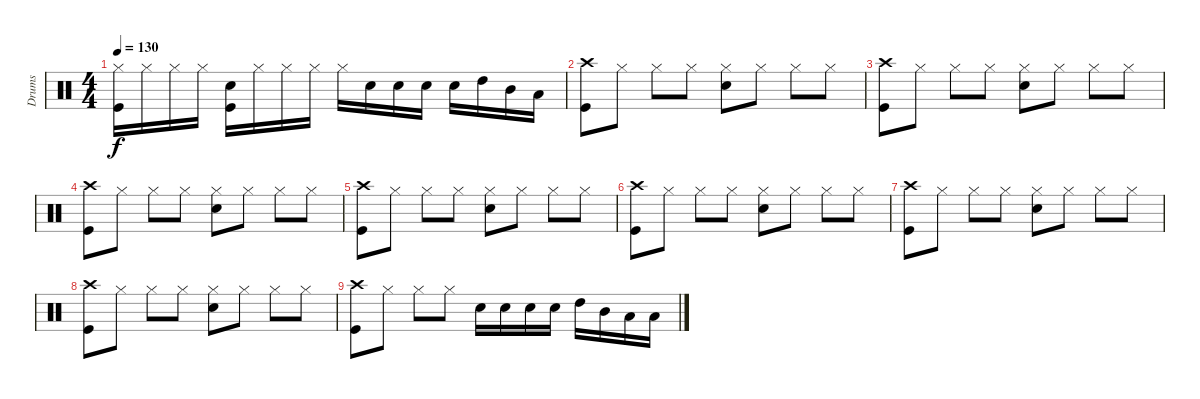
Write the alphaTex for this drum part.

\track ("Drums" "Drums") {instrument percussion}
\staff {score}
\articulation defaults
\ts (4 4)
\tempo 130
\clef neutral
\ks c
("Hi-Hat (closed)" "Kick (hit)").16{dy f} "Hi-Hat (closed)".16 "Hi-Hat (closed)".16 "Hi-Hat (closed)".16 ("Snare (hit) 2" "Kick (hit)").16 "Hi-Hat (closed)".16 "Hi-Hat (closed)".16 "Hi-Hat (closed)".16 "Hi-Hat (closed)".16 "Snare (hit) 2".16 "Snare (hit) 2".16 "Snare (hit) 2".16 "Snare (hit) 2".16 "High Tom (hit)".16 "Mid Tom (hit)".16 "Low Tom (hit)".16 |
("Crash high (hit)" "Kick (hit)").8 "Hi-Hat (closed)".8 "Hi-Hat (closed)".8 "Hi-Hat (closed)".8 ("Hi-Hat (closed)" "Snare (hit) 2").8 "Hi-Hat (closed)".8 "Hi-Hat (closed)".8 "Hi-Hat (closed)".8 |
("Crash high (hit)" "Kick (hit)").8 "Hi-Hat (closed)".8 "Hi-Hat (closed)".8 "Hi-Hat (closed)".8 ("Hi-Hat (closed)" "Snare (hit) 2").8 "Hi-Hat (closed)".8 "Hi-Hat (closed)".8 "Hi-Hat (closed)".8 |
("Crash high (hit)" "Kick (hit)").8 "Hi-Hat (closed)".8 "Hi-Hat (closed)".8 "Hi-Hat (closed)".8 ("Hi-Hat (closed)" "Snare (hit) 2").8 "Hi-Hat (closed)".8 "Hi-Hat (closed)".8 "Hi-Hat (closed)".8 |
("Crash high (hit)" "Kick (hit)").8 "Hi-Hat (closed)".8 "Hi-Hat (closed)".8 "Hi-Hat (closed)".8 ("Hi-Hat (closed)" "Snare (hit) 2").8 "Hi-Hat (closed)".8 "Hi-Hat (closed)".8 "Hi-Hat (closed)".8 |
("Crash high (hit)" "Kick (hit)").8 "Hi-Hat (closed)".8 "Hi-Hat (closed)".8 "Hi-Hat (closed)".8 ("Hi-Hat (closed)" "Snare (hit) 2").8 "Hi-Hat (closed)".8 "Hi-Hat (closed)".8 "Hi-Hat (closed)".8 |
("Crash high (hit)" "Kick (hit)").8 "Hi-Hat (closed)".8 "Hi-Hat (closed)".8 "Hi-Hat (closed)".8 ("Hi-Hat (closed)" "Snare (hit) 2").8 "Hi-Hat (closed)".8 "Hi-Hat (closed)".8 "Hi-Hat (closed)".8 |
("Crash high (hit)" "Kick (hit)").8 "Hi-Hat (closed)".8 "Hi-Hat (closed)".8 "Hi-Hat (closed)".8 ("Hi-Hat (closed)" "Snare (hit) 2").8 "Hi-Hat (closed)".8 "Hi-Hat (closed)".8 "Hi-Hat (closed)".8 |
("Crash high (hit)" "Kick (hit)").8 "Hi-Hat (closed)".8 "Hi-Hat (closed)".8 "Hi-Hat (closed)".8 "Snare (hit) 2".16 "Snare (hit) 2".16 "Snare (hit) 2".16 "Snare (hit) 2".16 "High Tom (hit)".16 "Mid Tom (hit)".16 "Low Tom (hit)".16 "Low Tom (hit)".16
